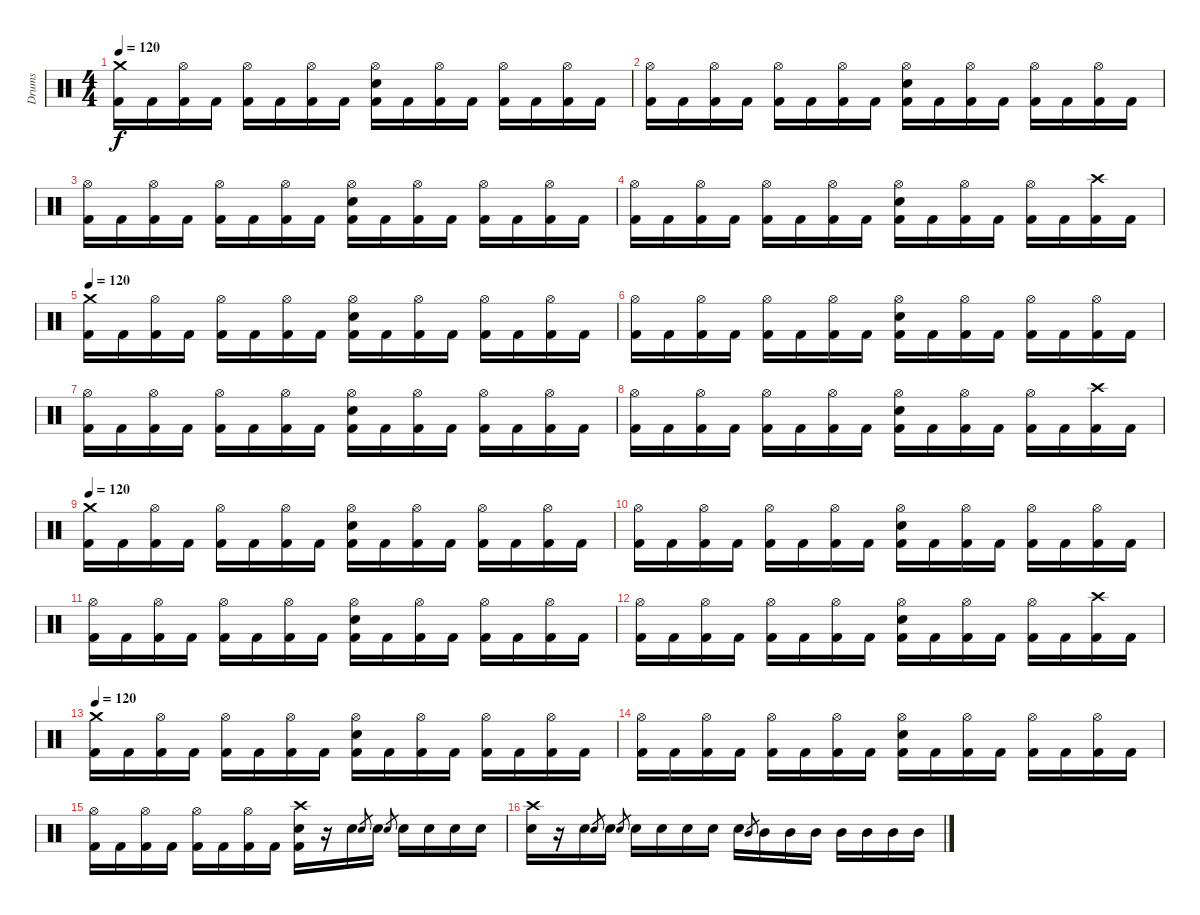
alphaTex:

\track ("Drums" "Drums") {instrument percussion}
\staff {score}
\articulation defaults
\ts (4 4)
\tempo 120
\clef neutral
\ks c
("Crash medium (hit)" "Kick (hit) 2").16{dy f} "Kick (hit) 2".16 ("Hi-Hat (open)" "Kick (hit) 2").16 "Kick (hit) 2".16 ("Hi-Hat (open)" "Kick (hit) 2").16 "Kick (hit) 2".16 ("Hi-Hat (open)" "Kick (hit) 2").16 "Kick (hit) 2".16 ("Hi-Hat (open)" "Electric Snare (hit)" "Kick (hit) 2").16 "Kick (hit) 2".16 ("Hi-Hat (open)" "Kick (hit) 2").16 "Kick (hit) 2".16 ("Hi-Hat (open)" "Kick (hit) 2").16 "Kick (hit) 2".16 ("Hi-Hat (open)" "Kick (hit) 2").16 "Kick (hit) 2".16 |
("Hi-Hat (open)" "Kick (hit) 2").16 "Kick (hit) 2".16 ("Hi-Hat (open)" "Kick (hit) 2").16 "Kick (hit) 2".16 ("Hi-Hat (open)" "Kick (hit) 2").16 "Kick (hit) 2".16 ("Hi-Hat (open)" "Kick (hit) 2").16 "Kick (hit) 2".16 ("Hi-Hat (open)" "Electric Snare (hit)" "Kick (hit) 2").16 "Kick (hit) 2".16 ("Hi-Hat (open)" "Kick (hit) 2").16 "Kick (hit) 2".16 ("Hi-Hat (open)" "Kick (hit) 2").16 "Kick (hit) 2".16 ("Hi-Hat (open)" "Kick (hit) 2").16 "Kick (hit) 2".16 |
("Hi-Hat (open)" "Kick (hit) 2").16 "Kick (hit) 2".16 ("Hi-Hat (open)" "Kick (hit) 2").16 "Kick (hit) 2".16 ("Hi-Hat (open)" "Kick (hit) 2").16 "Kick (hit) 2".16 ("Hi-Hat (open)" "Kick (hit) 2").16 "Kick (hit) 2".16 ("Hi-Hat (open)" "Electric Snare (hit)" "Kick (hit) 2").16 "Kick (hit) 2".16 ("Hi-Hat (open)" "Kick (hit) 2").16 "Kick (hit) 2".16 ("Hi-Hat (open)" "Kick (hit) 2").16 "Kick (hit) 2".16 ("Hi-Hat (open)" "Kick (hit) 2").16 "Kick (hit) 2".16 |
("Hi-Hat (open)" "Kick (hit) 2").16 "Kick (hit) 2".16 ("Hi-Hat (open)" "Kick (hit) 2").16 "Kick (hit) 2".16 ("Hi-Hat (open)" "Kick (hit) 2").16 "Kick (hit) 2".16 ("Hi-Hat (open)" "Kick (hit) 2").16 "Kick (hit) 2".16 ("Hi-Hat (open)" "Electric Snare (hit)" "Kick (hit) 2").16 "Kick (hit) 2".16 ("Hi-Hat (open)" "Kick (hit) 2").16 "Kick (hit) 2".16 ("Hi-Hat (open)" "Kick (hit) 2").16 "Kick (hit) 2".16 ("Crash high (hit)" "Kick (hit) 2").16 "Kick (hit) 2".16 |
\tempo 120
("Crash medium (hit)" "Kick (hit) 2").16 "Kick (hit) 2".16 ("Hi-Hat (open)" "Kick (hit) 2").16 "Kick (hit) 2".16 ("Hi-Hat (open)" "Kick (hit) 2").16 "Kick (hit) 2".16 ("Hi-Hat (open)" "Kick (hit) 2").16 "Kick (hit) 2".16 ("Hi-Hat (open)" "Electric Snare (hit)" "Kick (hit) 2").16 "Kick (hit) 2".16 ("Hi-Hat (open)" "Kick (hit) 2").16 "Kick (hit) 2".16 ("Hi-Hat (open)" "Kick (hit) 2").16 "Kick (hit) 2".16 ("Hi-Hat (open)" "Kick (hit) 2").16 "Kick (hit) 2".16 |
("Hi-Hat (open)" "Kick (hit) 2").16 "Kick (hit) 2".16 ("Hi-Hat (open)" "Kick (hit) 2").16 "Kick (hit) 2".16 ("Hi-Hat (open)" "Kick (hit) 2").16 "Kick (hit) 2".16 ("Hi-Hat (open)" "Kick (hit) 2").16 "Kick (hit) 2".16 ("Hi-Hat (open)" "Electric Snare (hit)" "Kick (hit) 2").16 "Kick (hit) 2".16 ("Hi-Hat (open)" "Kick (hit) 2").16 "Kick (hit) 2".16 ("Hi-Hat (open)" "Kick (hit) 2").16 "Kick (hit) 2".16 ("Hi-Hat (open)" "Kick (hit) 2").16 "Kick (hit) 2".16 |
("Hi-Hat (open)" "Kick (hit) 2").16 "Kick (hit) 2".16 ("Hi-Hat (open)" "Kick (hit) 2").16 "Kick (hit) 2".16 ("Hi-Hat (open)" "Kick (hit) 2").16 "Kick (hit) 2".16 ("Hi-Hat (open)" "Kick (hit) 2").16 "Kick (hit) 2".16 ("Hi-Hat (open)" "Electric Snare (hit)" "Kick (hit) 2").16 "Kick (hit) 2".16 ("Hi-Hat (open)" "Kick (hit) 2").16 "Kick (hit) 2".16 ("Hi-Hat (open)" "Kick (hit) 2").16 "Kick (hit) 2".16 ("Hi-Hat (open)" "Kick (hit) 2").16 "Kick (hit) 2".16 |
("Hi-Hat (open)" "Kick (hit) 2").16 "Kick (hit) 2".16 ("Hi-Hat (open)" "Kick (hit) 2").16 "Kick (hit) 2".16 ("Hi-Hat (open)" "Kick (hit) 2").16 "Kick (hit) 2".16 ("Hi-Hat (open)" "Kick (hit) 2").16 "Kick (hit) 2".16 ("Hi-Hat (open)" "Electric Snare (hit)" "Kick (hit) 2").16 "Kick (hit) 2".16 ("Hi-Hat (open)" "Kick (hit) 2").16 "Kick (hit) 2".16 ("Hi-Hat (open)" "Kick (hit) 2").16 "Kick (hit) 2".16 ("Crash high (hit)" "Kick (hit) 2").16 "Kick (hit) 2".16 |
\tempo 120
("Crash medium (hit)" "Kick (hit) 2").16 "Kick (hit) 2".16 ("Hi-Hat (open)" "Kick (hit) 2").16 "Kick (hit) 2".16 ("Hi-Hat (open)" "Kick (hit) 2").16 "Kick (hit) 2".16 ("Hi-Hat (open)" "Kick (hit) 2").16 "Kick (hit) 2".16 ("Hi-Hat (open)" "Electric Snare (hit)" "Kick (hit) 2").16 "Kick (hit) 2".16 ("Hi-Hat (open)" "Kick (hit) 2").16 "Kick (hit) 2".16 ("Hi-Hat (open)" "Kick (hit) 2").16 "Kick (hit) 2".16 ("Hi-Hat (open)" "Kick (hit) 2").16 "Kick (hit) 2".16 |
("Hi-Hat (open)" "Kick (hit) 2").16 "Kick (hit) 2".16 ("Hi-Hat (open)" "Kick (hit) 2").16 "Kick (hit) 2".16 ("Hi-Hat (open)" "Kick (hit) 2").16 "Kick (hit) 2".16 ("Hi-Hat (open)" "Kick (hit) 2").16 "Kick (hit) 2".16 ("Hi-Hat (open)" "Electric Snare (hit)" "Kick (hit) 2").16 "Kick (hit) 2".16 ("Hi-Hat (open)" "Kick (hit) 2").16 "Kick (hit) 2".16 ("Hi-Hat (open)" "Kick (hit) 2").16 "Kick (hit) 2".16 ("Hi-Hat (open)" "Kick (hit) 2").16 "Kick (hit) 2".16 |
("Hi-Hat (open)" "Kick (hit) 2").16 "Kick (hit) 2".16 ("Hi-Hat (open)" "Kick (hit) 2").16 "Kick (hit) 2".16 ("Hi-Hat (open)" "Kick (hit) 2").16 "Kick (hit) 2".16 ("Hi-Hat (open)" "Kick (hit) 2").16 "Kick (hit) 2".16 ("Hi-Hat (open)" "Electric Snare (hit)" "Kick (hit) 2").16 "Kick (hit) 2".16 ("Hi-Hat (open)" "Kick (hit) 2").16 "Kick (hit) 2".16 ("Hi-Hat (open)" "Kick (hit) 2").16 "Kick (hit) 2".16 ("Hi-Hat (open)" "Kick (hit) 2").16 "Kick (hit) 2".16 |
("Hi-Hat (open)" "Kick (hit) 2").16 "Kick (hit) 2".16 ("Hi-Hat (open)" "Kick (hit) 2").16 "Kick (hit) 2".16 ("Hi-Hat (open)" "Kick (hit) 2").16 "Kick (hit) 2".16 ("Hi-Hat (open)" "Kick (hit) 2").16 "Kick (hit) 2".16 ("Hi-Hat (open)" "Electric Snare (hit)" "Kick (hit) 2").16 "Kick (hit) 2".16 ("Hi-Hat (open)" "Kick (hit) 2").16 "Kick (hit) 2".16 ("Hi-Hat (open)" "Kick (hit) 2").16 "Kick (hit) 2".16 ("Crash high (hit)" "Kick (hit) 2").16 "Kick (hit) 2".16 |
\tempo 120
("Crash medium (hit)" "Kick (hit) 2").16 "Kick (hit) 2".16 ("Hi-Hat (open)" "Kick (hit) 2").16 "Kick (hit) 2".16 ("Hi-Hat (open)" "Kick (hit) 2").16 "Kick (hit) 2".16 ("Hi-Hat (open)" "Kick (hit) 2").16 "Kick (hit) 2".16 ("Hi-Hat (open)" "Electric Snare (hit)" "Kick (hit) 2").16 "Kick (hit) 2".16 ("Hi-Hat (open)" "Kick (hit) 2").16 "Kick (hit) 2".16 ("Hi-Hat (open)" "Kick (hit) 2").16 "Kick (hit) 2".16 ("Hi-Hat (open)" "Kick (hit) 2").16 "Kick (hit) 2".16 |
("Hi-Hat (open)" "Kick (hit) 2").16 "Kick (hit) 2".16 ("Hi-Hat (open)" "Kick (hit) 2").16 "Kick (hit) 2".16 ("Hi-Hat (open)" "Kick (hit) 2").16 "Kick (hit) 2".16 ("Hi-Hat (open)" "Kick (hit) 2").16 "Kick (hit) 2".16 ("Hi-Hat (open)" "Electric Snare (hit)" "Kick (hit) 2").16 "Kick (hit) 2".16 ("Hi-Hat (open)" "Kick (hit) 2").16 "Kick (hit) 2".16 ("Hi-Hat (open)" "Kick (hit) 2").16 "Kick (hit) 2".16 ("Hi-Hat (open)" "Kick (hit) 2").16 "Kick (hit) 2".16 |
("Hi-Hat (open)" "Kick (hit) 2").16 "Kick (hit) 2".16 ("Hi-Hat (open)" "Kick (hit) 2").16 "Kick (hit) 2".16 ("Hi-Hat (open)" "Kick (hit) 2").16 "Kick (hit) 2".16 ("Hi-Hat (open)" "Kick (hit) 2").16 "Kick (hit) 2".16 ("Crash high (hit)" "Electric Snare (hit)" "Kick (hit) 2").16 r.16 "Electric Snare (hit)".16 "Electric Snare (hit)".8{gr} "Electric Snare (hit)".16 "Electric Snare (hit)".8{gr} "Electric Snare (hit)".16 "Electric Snare (hit)".16 "Electric Snare (hit)".16 "Electric Snare (hit)".16 |
("Crash high (hit)" "Electric Snare (hit)").16 r.16 "Electric Snare (hit)".16 "Electric Snare (hit)".8{gr} "Electric Snare (hit)".16 "Electric Snare (hit)".8{gr} "Electric Snare (hit)".16 "Electric Snare (hit)".16 "Electric Snare (hit)".16 "Electric Snare (hit)".16 "Electric Snare (hit)".16 "Mid Tom (hit)".8{gr} "Mid Tom (hit)".16 "Mid Tom (hit)".16 "Mid Tom (hit)".16 "Mid Tom (hit)".16 "Mid Tom (hit)".16 "Mid Tom (hit)".16 "Mid Tom (hit)".16
